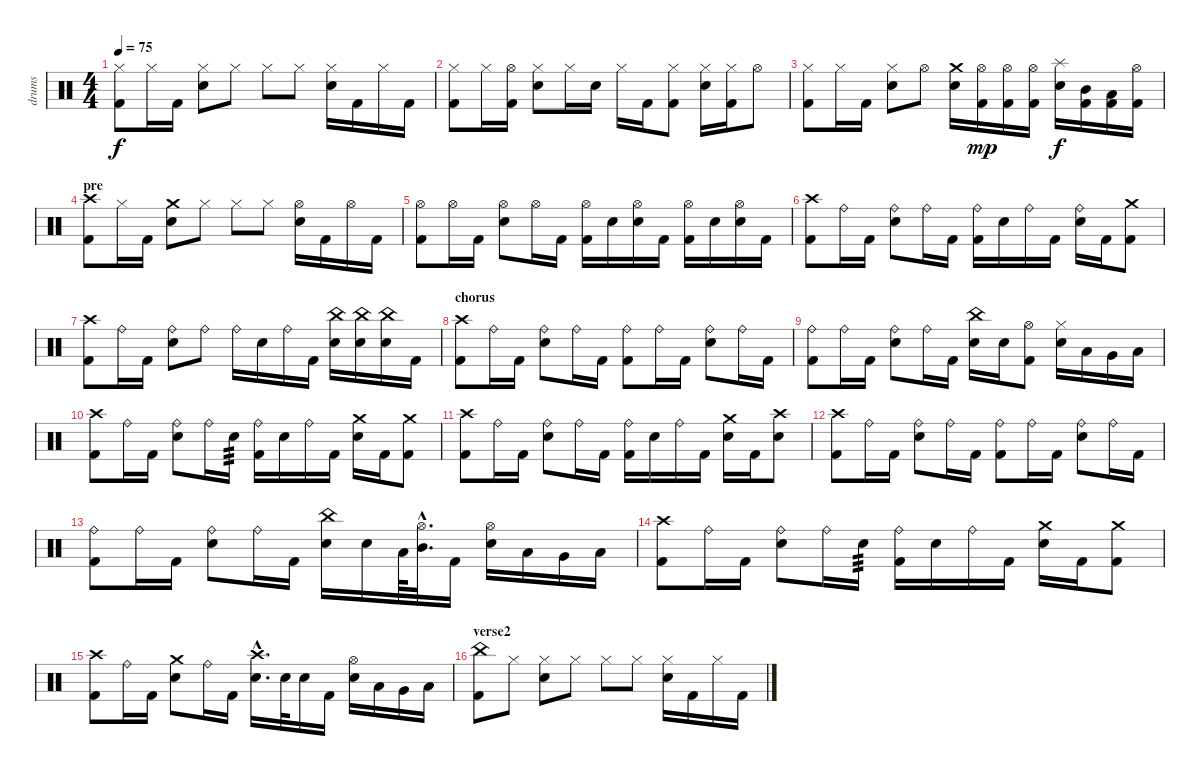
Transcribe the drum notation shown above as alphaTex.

\track ("drums" "drums") {instrument percussion}
\staff {score}
\articulation defaults
\ts (4 4)
\tempo 75
\clef neutral
\ks c
("Hi-Hat (closed)" "Kick (hit) 2").8{dy f} "Hi-Hat (closed)".16 "Kick (hit) 2".16 ("Hi-Hat (closed)" "Electric Snare (hit)").8 "Hi-Hat (closed)".8 "Hi-Hat (closed)".8 "Hi-Hat (closed)".8 ("Hi-Hat (closed)" "Electric Snare (hit)").16 "Kick (hit) 2".16 "Hi-Hat (closed)".16 "Kick (hit) 2".16 |
("Hi-Hat (closed)" "Kick (hit) 2").8 "Hi-Hat (closed)".16 ("Hi-Hat (open)" "Kick (hit) 2").16 ("Hi-Hat (closed)" "Electric Snare (hit)").8 "Hi-Hat (closed)".16 "Electric Snare (hit)".16 "Hi-Hat (closed)".16 "Kick (hit) 2".16 ("Hi-Hat (closed)" "Kick (hit) 2").8 ("Hi-Hat (closed)" "Electric Snare (hit)").16 ("Hi-Hat (closed)" "Kick (hit) 2").16 "Hi-Hat (open)".8 |
("Hi-Hat (closed)" "Kick (hit) 2").8 "Hi-Hat (closed)".16 "Kick (hit) 2".16 ("Hi-Hat (closed)" "Electric Snare (hit)").8 "Hi-Hat (open)".8 ("Crash medium (hit)" "Electric Snare (hit)").16 ("Hi-Hat (open)" "Kick (hit) 2").16{dy mp} ("Hi-Hat (open)" "Kick (hit) 2").16 ("Hi-Hat (open)" "Kick (hit) 2").16 ("Splash (hit)" "Electric Snare (hit)").16{dy f} ("Mid Tom (hit)" "Kick (hit) 2").16 ("Low Tom (hit)" "Kick (hit) 2").16 ("Hi-Hat (open)" "Kick (hit) 2").16 |
\section ("" "pre")
("Crash high (hit)" "Kick (hit) 2").8 "Hi-Hat (closed)".16 "Kick (hit) 2".16 ("Crash medium (hit)" "Electric Snare (hit)").8 "Hi-Hat (closed)".8 "Hi-Hat (closed)".8 "Hi-Hat (closed)".8 ("Hi-Hat (open)" "Electric Snare (hit)").16 "Kick (hit) 2".16 "Hi-Hat (open)".16 "Kick (hit) 2".16 |
("Hi-Hat (open)" "Kick (hit) 2").8 "Hi-Hat (open)".16 "Kick (hit) 2".16 ("Hi-Hat (open)" "Electric Snare (hit)").8 "Hi-Hat (open)".16 "Kick (hit) 2".16 ("Hi-Hat (open)" "Kick (hit) 2").16 "Electric Snare (hit)".16 ("Hi-Hat (open)" "Electric Snare (hit)").16 "Kick (hit) 2".16 ("Hi-Hat (open)" "Kick (hit) 2").16 "Electric Snare (hit)".16 ("Hi-Hat (open)" "Electric Snare (hit)").16 "Kick (hit) 2".16 |
("Crash high (hit)" "Kick (hit) 2").8 "Ride (bell)".16 "Kick (hit) 2".16 ("Ride (bell)" "Electric Snare (hit)").8 "Ride (bell)".16 "Kick (hit) 2".16 ("Ride (bell)" "Kick (hit) 2").16 "Electric Snare (hit)".16 "Ride (bell)".16 "Kick (hit) 2".16 ("Ride (bell)" "Electric Snare (hit)").16 "Kick (hit) 2".16 ("Crash medium (hit)" "Kick (hit) 2").8 |
("Crash high (hit)" "Kick (hit) 2").8 "Ride (bell)".16 "Kick (hit) 2".16 ("Ride (bell)" "Electric Snare (hit)").8 "Ride (bell)".8 "Ride (bell)".16 "Electric Snare (hit)".16 "Ride (bell)".16 "Kick (hit) 2".16 ("China (hit)" "Electric Snare (hit)").16 ("China (hit)" "Electric Snare (hit)").16 ("China (hit)" "Electric Snare (hit)").16 "Kick (hit) 2".16 |
\section ("" "chorus")
("Crash high (hit)" "Kick (hit) 2").8 "Ride (bell)".16 "Kick (hit) 2".16 ("Ride (bell)" "Electric Snare (hit)").8 "Ride (bell)".16 "Kick (hit) 2".16 ("Ride (bell)" "Kick (hit) 2").8 "Ride (bell)".16 "Kick (hit) 2".16 ("Ride (bell)" "Electric Snare (hit)").8 "Ride (bell)".16 "Kick (hit) 2".16 |
("Ride (bell)" "Kick (hit) 2").8 "Ride (bell)".16 "Kick (hit) 2".16 ("Ride (bell)" "Electric Snare (hit)").8 "Ride (bell)".16 "Kick (hit) 2".16 ("China (hit)" "Electric Snare (hit)").16 "Electric Snare (hit)".16 ("Hi-Hat (open)" "Kick (hit) 2").8 ("Hi-Hat (closed)" "Electric Snare (hit)").16 "Low Tom (hit)".16 "Very Low Tom (hit)".16 "Low Floor Tom (hit)".16 |
("Crash high (hit)" "Kick (hit) 2").8 "Ride (bell)".16 "Kick (hit) 2".16 ("Ride (bell)" "Electric Snare (hit)").8 "Ride (bell)".16 "Electric Snare (hit)".16{tp 3} ("Ride (bell)" "Kick (hit) 2").16 "Electric Snare (hit)".16 "Ride (bell)".16 "Kick (hit) 2".16 ("Crash medium (hit)" "Electric Snare (hit)").16 "Kick (hit) 2".16 ("Crash medium (hit)" "Kick (hit) 2").8 |
("Crash high (hit)" "Kick (hit) 2").8 "Ride (bell)".16 "Kick (hit) 2".16 ("Ride (bell)" "Electric Snare (hit)").8 "Ride (bell)".16 "Kick (hit) 2".16 ("Ride (bell)" "Kick (hit) 2").16 "Electric Snare (hit)".16 "Ride (bell)".16 "Kick (hit) 2".16 ("Crash medium (hit)" "Electric Snare (hit)").16 "Kick (hit) 2".16 ("Crash high (hit)" "Electric Snare (hit)").8 |
("Crash high (hit)" "Kick (hit) 2").8 "Ride (bell)".16 "Kick (hit) 2".16 ("Ride (bell)" "Electric Snare (hit)").8 "Ride (bell)".16 "Kick (hit) 2".16 ("Ride (bell)" "Kick (hit) 2").8 "Ride (bell)".16 "Kick (hit) 2".16 ("Ride (bell)" "Electric Snare (hit)").8 "Ride (bell)".16 "Kick (hit) 2".16 |
("Ride (bell)" "Kick (hit) 2").8 "Ride (bell)".16 "Kick (hit) 2".16 ("Ride (bell)" "Electric Snare (hit)").8 "Ride (bell)".16 "Kick (hit) 2".16 ("China (hit)" "Electric Snare (hit)").16 "Electric Snare (hit)".16 "Low Tom (hit)".64 ("Hi-Hat (open)"{hac} "Mid Tom (hit)"{hac}).32{d} "Kick (hit) 2".16 ("Hi-Hat (open)" "Electric Snare (hit)").16 "Low Tom (hit)".16 "Very Low Tom (hit)".16 "Low Floor Tom (hit)".16 |
("Crash high (hit)" "Kick (hit) 2").8 "Ride (bell)".16 "Kick (hit) 2".16 ("Ride (bell)" "Electric Snare (hit)").8 "Ride (bell)".16 "Electric Snare (hit)".16{tp 3} ("Ride (bell)" "Kick (hit) 2").16 "Electric Snare (hit)".16 "Ride (bell)".16 "Kick (hit) 2".16 ("Crash medium (hit)" "Electric Snare (hit)").16 "Kick (hit) 2".16 ("Crash medium (hit)" "Kick (hit) 2").8 |
("Crash high (hit)" "Kick (hit) 2").8 "Ride (bell)".16 "Kick (hit) 2".16 ("Crash medium (hit)" "Electric Snare (hit)").8 "Ride (bell)".16 "Kick (hit) 2".16 ("Crash high (hit)"{hac} "Electric Snare (hit)"{hac}).16{d} "Electric Snare (hit)".32 "Electric Snare (hit)".16 "Kick (hit) 2".16 ("Hi-Hat (open)" "Electric Snare (hit)").16 "Low Tom (hit)".16 "Very Low Tom (hit)".16 "Low Floor Tom (hit)".16 |
\section ("" "verse2")
("China (hit)" "Kick (hit) 2").8 "Hi-Hat (closed)".8 ("Hi-Hat (closed)" "Electric Snare (hit)").8 "Hi-Hat (closed)".8 "Hi-Hat (closed)".8 "Hi-Hat (closed)".8 ("Hi-Hat (closed)" "Electric Snare (hit)").16 "Kick (hit) 2".16 "Hi-Hat (closed)".16 "Kick (hit) 2".16
